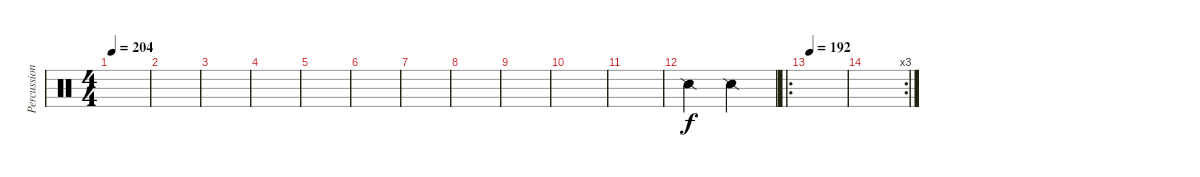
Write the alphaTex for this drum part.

\track ("Percussion" "Percussion") {instrument percussion}
\staff {score}
\articulation defaults
\ts (4 4)
\tempo 204
\clef neutral
\ks c
|
|
|
|
|
|
|
|
|
|
|
"Snare (side stick) 2".2 "Snare (side stick) 2".2 |
\ro
\tempo 192
|
\rc 3
